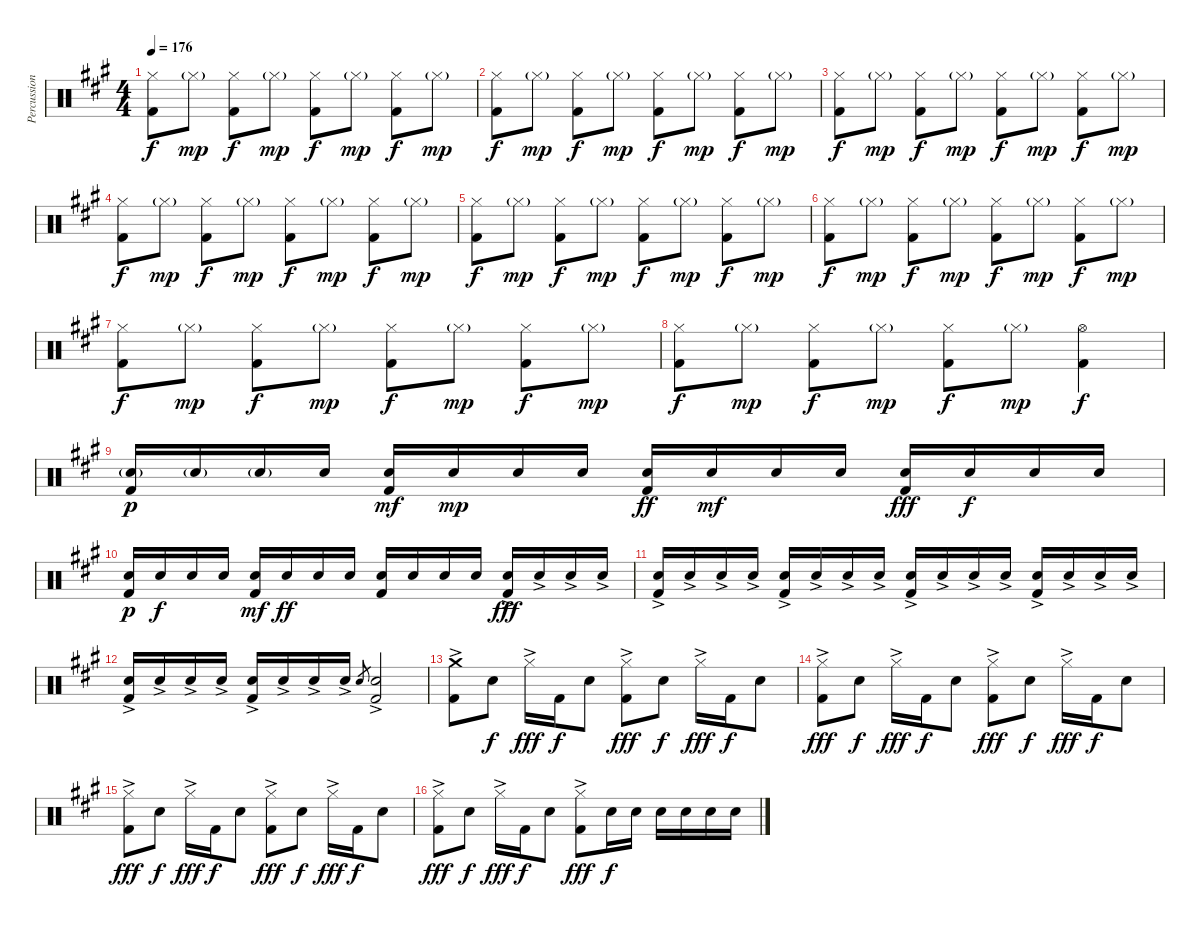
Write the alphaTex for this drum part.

\track ("Percussion" "Percussion") {instrument percussion}
\staff {score}
\articulation defaults
\ts (4 4)
\tempo 176
\clef neutral
\ks a
("Hi-Hat (closed)" "Kick (hit) 2").8{dy f} "Hi-Hat (closed)"{g}.8{dy mp} ("Hi-Hat (closed)" "Kick (hit) 2").8{dy f} "Hi-Hat (closed)"{g}.8{dy mp} ("Hi-Hat (closed)" "Kick (hit) 2").8{dy f} "Hi-Hat (closed)"{g}.8{dy mp} ("Hi-Hat (closed)" "Kick (hit) 2").8{dy f} "Hi-Hat (closed)"{g}.8{dy mp} |
("Hi-Hat (closed)" "Kick (hit) 2").8{dy f} "Hi-Hat (closed)"{g}.8{dy mp} ("Hi-Hat (closed)" "Kick (hit) 2").8{dy f} "Hi-Hat (closed)"{g}.8{dy mp} ("Hi-Hat (closed)" "Kick (hit) 2").8{dy f} "Hi-Hat (closed)"{g}.8{dy mp} ("Hi-Hat (closed)" "Kick (hit) 2").8{dy f} "Hi-Hat (closed)"{g}.8{dy mp} |
("Hi-Hat (closed)" "Kick (hit) 2").8{dy f} "Hi-Hat (closed)"{g}.8{dy mp} ("Hi-Hat (closed)" "Kick (hit) 2").8{dy f} "Hi-Hat (closed)"{g}.8{dy mp} ("Hi-Hat (closed)" "Kick (hit) 2").8{dy f} "Hi-Hat (closed)"{g}.8{dy mp} ("Hi-Hat (closed)" "Kick (hit) 2").8{dy f} "Hi-Hat (closed)"{g}.8{dy mp} |
("Hi-Hat (closed)" "Kick (hit) 2").8{dy f} "Hi-Hat (closed)"{g}.8{dy mp} ("Hi-Hat (closed)" "Kick (hit) 2").8{dy f} "Hi-Hat (closed)"{g}.8{dy mp} ("Hi-Hat (closed)" "Kick (hit) 2").8{dy f} "Hi-Hat (closed)"{g}.8{dy mp} ("Hi-Hat (closed)" "Kick (hit) 2").8{dy f} "Hi-Hat (closed)"{g}.8{dy mp} |
("Hi-Hat (closed)" "Kick (hit) 2").8{dy f} "Hi-Hat (closed)"{g}.8{dy mp} ("Hi-Hat (closed)" "Kick (hit) 2").8{dy f} "Hi-Hat (closed)"{g}.8{dy mp} ("Hi-Hat (closed)" "Kick (hit) 2").8{dy f} "Hi-Hat (closed)"{g}.8{dy mp} ("Hi-Hat (closed)" "Kick (hit) 2").8{dy f} "Hi-Hat (closed)"{g}.8{dy mp} |
("Hi-Hat (closed)" "Kick (hit) 2").8{dy f} "Hi-Hat (closed)"{g}.8{dy mp} ("Hi-Hat (closed)" "Kick (hit) 2").8{dy f} "Hi-Hat (closed)"{g}.8{dy mp} ("Hi-Hat (closed)" "Kick (hit) 2").8{dy f} "Hi-Hat (closed)"{g}.8{dy mp} ("Hi-Hat (closed)" "Kick (hit) 2").8{dy f} "Hi-Hat (closed)"{g}.8{dy mp} |
("Hi-Hat (closed)" "Kick (hit) 2").8{dy f} "Hi-Hat (closed)"{g}.8{dy mp} ("Hi-Hat (closed)" "Kick (hit) 2").8{dy f} "Hi-Hat (closed)"{g}.8{dy mp} ("Hi-Hat (closed)" "Kick (hit) 2").8{dy f} "Hi-Hat (closed)"{g}.8{dy mp} ("Hi-Hat (closed)" "Kick (hit) 2").8{dy f} "Hi-Hat (closed)"{g}.8{dy mp} |
("Hi-Hat (closed)" "Kick (hit) 2").8{dy f} "Hi-Hat (closed)"{g}.8{dy mp} ("Hi-Hat (closed)" "Kick (hit) 2").8{dy f} "Hi-Hat (closed)"{g}.8{dy mp} ("Hi-Hat (closed)" "Kick (hit) 2").8{dy f} "Hi-Hat (closed)"{g}.8{dy mp} ("Hi-Hat (open)" "Kick (hit) 2").4{dy f} |
("Snare (hit) 2"{g} "Kick (hit) 2").16{dy p} "Snare (hit) 2"{g}.16 "Snare (hit) 2"{g}.16 "Snare (hit) 2".16 ("Snare (hit) 2" "Kick (hit) 2").16{dy mf} "Snare (hit) 2".16{dy mp} "Snare (hit) 2".16 "Snare (hit) 2".16 ("Snare (hit) 2" "Kick (hit) 2").16{dy ff} "Snare (hit) 2".16{dy mf} "Snare (hit) 2".16 "Snare (hit) 2".16 ("Snare (hit) 2" "Kick (hit) 2").16{dy fff} "Snare (hit) 2".16{dy f} "Snare (hit) 2".16 "Snare (hit) 2".16 |
("Snare (hit) 2" "Kick (hit) 2").16{dy p} "Snare (hit) 2".16{dy f} "Snare (hit) 2".16 "Snare (hit) 2".16 ("Snare (hit) 2" "Kick (hit) 2").16{dy mf} "Snare (hit) 2".16{dy ff} "Snare (hit) 2".16 "Snare (hit) 2".16 ("Snare (hit) 2" "Kick (hit) 2").16 "Snare (hit) 2".16 "Snare (hit) 2".16 "Snare (hit) 2".16 ("Snare (hit) 2"{ac} "Kick (hit) 2").16{dy fff} "Snare (hit) 2"{ac}.16 "Snare (hit) 2"{ac}.16 "Snare (hit) 2"{ac}.16 |
("Snare (hit) 2"{ac} "Kick (hit) 2").16 "Snare (hit) 2"{ac}.16 "Snare (hit) 2"{ac}.16 "Snare (hit) 2"{ac}.16 ("Snare (hit) 2"{ac} "Kick (hit) 2").16 "Snare (hit) 2"{ac}.16 "Snare (hit) 2"{ac}.16 "Snare (hit) 2"{ac}.16 ("Snare (hit) 2"{ac} "Kick (hit) 2").16 "Snare (hit) 2"{ac}.16 "Snare (hit) 2"{ac}.16 "Snare (hit) 2"{ac}.16 ("Snare (hit) 2"{ac} "Kick (hit) 2").16 "Snare (hit) 2"{ac}.16 "Snare (hit) 2"{ac}.16 "Snare (hit) 2"{ac}.16 |
("Snare (hit) 2"{ac} "Kick (hit) 2").16 "Snare (hit) 2"{ac}.16 "Snare (hit) 2"{ac}.16 "Snare (hit) 2"{ac}.16 ("Snare (hit) 2"{ac} "Kick (hit) 2").16 "Snare (hit) 2"{ac}.16 "Snare (hit) 2"{ac}.16 "Snare (hit) 2"{ac}.16 "Snare (hit) 2".8{gr} ("Snare (hit) 2"{ac} "Kick (hit) 2").2 |
("Crash medium (hit)"{ac} "Kick (hit) 2").8 "Snare (hit) 2".8{dy f} "Hi-Hat (closed)"{ac}.16{dy fff} "Kick (hit) 2".16{dy f} "Snare (hit) 2".8 ("Hi-Hat (closed)"{ac} "Kick (hit) 2").8{dy fff} "Snare (hit) 2".8{dy f} "Hi-Hat (closed)"{ac}.16{dy fff} "Kick (hit) 2".16{dy f} "Snare (hit) 2".8 |
("Hi-Hat (closed)"{ac} "Kick (hit) 2").8{dy fff} "Snare (hit) 2".8{dy f} "Hi-Hat (closed)"{ac}.16{dy fff} "Kick (hit) 2".16{dy f} "Snare (hit) 2".8 ("Hi-Hat (closed)"{ac} "Kick (hit) 2").8{dy fff} "Snare (hit) 2".8{dy f} "Hi-Hat (closed)"{ac}.16{dy fff} "Kick (hit) 2".16{dy f} "Snare (hit) 2".8 |
("Hi-Hat (closed)"{ac} "Kick (hit) 2").8{dy fff} "Snare (hit) 2".8{dy f} "Hi-Hat (closed)"{ac}.16{dy fff} "Kick (hit) 2".16{dy f} "Snare (hit) 2".8 ("Hi-Hat (closed)"{ac} "Kick (hit) 2").8{dy fff} "Snare (hit) 2".8{dy f} "Hi-Hat (closed)"{ac}.16{dy fff} "Kick (hit) 2".16{dy f} "Snare (hit) 2".8 |
("Hi-Hat (closed)"{ac} "Kick (hit) 2").8{dy fff} "Snare (hit) 2".8{dy f} "Hi-Hat (closed)"{ac}.16{dy fff} "Kick (hit) 2".16{dy f} "Snare (hit) 2".8 ("Hi-Hat (closed)"{ac} "Kick (hit) 2").8{dy fff} "Snare (hit) 2".16{dy f} "Snare (hit) 2".16 "Snare (hit) 2".16 "Snare (hit) 2".16 "Snare (hit) 2".16 "Snare (hit) 2".16
